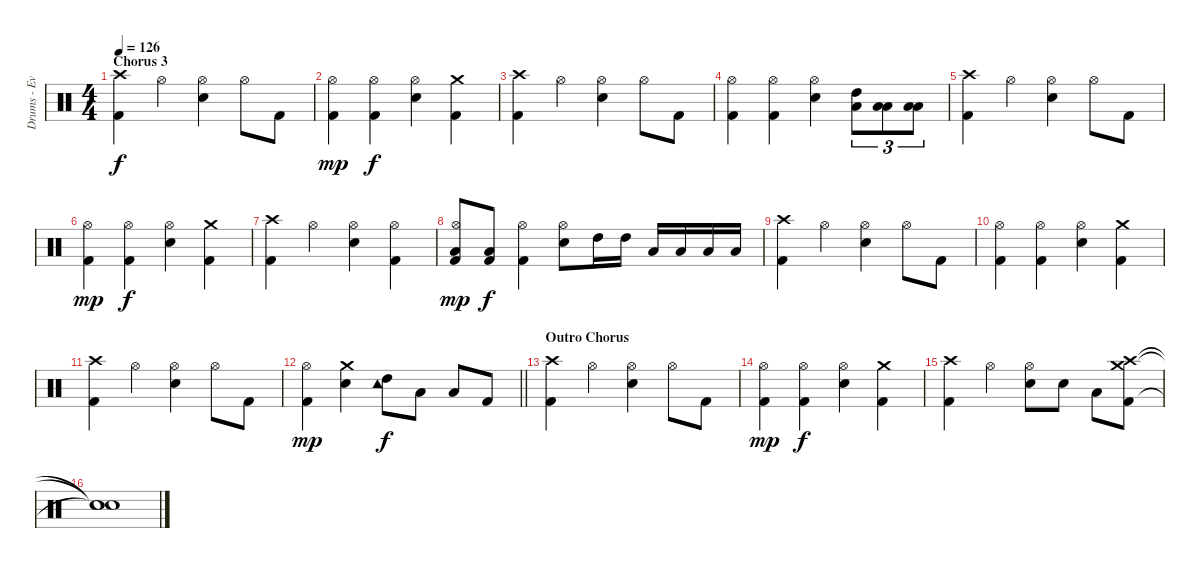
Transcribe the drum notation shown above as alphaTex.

\track ("Drums - Evans" "Drums - Ev") {instrument percussion}
\staff {score}
\articulation defaults
\ts (4 4)
\section ("" "Chorus 3")
\tempo 126
\clef neutral
\ks c
("Crash high (hit)" "Kick (hit) 2").4{dy f} "Hi-Hat (open)".4 ("Hi-Hat (open)" "Electric Snare (hit)").4 "Hi-Hat (open)".8 "Kick (hit) 2".8 |
("Hi-Hat (open)" "Kick (hit) 2").4{dy mp} ("Hi-Hat (open)" "Kick (hit) 2").4{dy f} ("Hi-Hat (open)" "Electric Snare (hit)").4 ("Crash medium (hit)" "Kick (hit) 2").4 |
("Crash high (hit)" "Kick (hit) 2").4 "Hi-Hat (open)".4 ("Hi-Hat (open)" "Electric Snare (hit)").4 "Hi-Hat (open)".8 "Kick (hit) 2".8 |
("Hi-Hat (open)" "Kick (hit) 2").4 ("Hi-Hat (open)" "Kick (hit) 2").4 ("Hi-Hat (open)" "Electric Snare (hit)").4 ("High Tom (hit)" "Low Tom (hit)").8{tu (3 2)} ("Low Floor Tom (hit)" "Low Tom (hit)").8{tu (3 2)} ("Low Floor Tom (hit)" "Low Tom (hit)").8{tu (3 2)} |
("Crash high (hit)" "Kick (hit) 2").4 "Hi-Hat (open)".4 ("Hi-Hat (open)" "Electric Snare (hit)").4 "Hi-Hat (open)".8 "Kick (hit) 2".8 |
("Hi-Hat (open)" "Kick (hit) 2").4{dy mp} ("Hi-Hat (open)" "Kick (hit) 2").4{dy f} ("Hi-Hat (open)" "Electric Snare (hit)").4 ("Crash medium (hit)" "Kick (hit) 2").4 |
("Crash high (hit)" "Kick (hit) 2").4 "Hi-Hat (open)".4 ("Hi-Hat (open)" "Electric Snare (hit)").4 ("Hi-Hat (open)" "Kick (hit) 2").4 |
("Hi-Hat (open)" "Low Tom (hit)" "Kick (hit) 2").8{dy mp} ("Low Floor Tom (hit)" "Kick (hit) 2").8{dy f} ("Hi-Hat (open)" "Kick (hit) 2").4 ("Hi-Hat (open)" "Electric Snare (hit)").8 "High Tom (hit)".16 "High Tom (hit)".16 "Low Tom (hit)".16 "Low Tom (hit)".16 "Low Floor Tom (hit)".16 "Low Floor Tom (hit)".16 |
("Crash high (hit)" "Kick (hit) 2").4 "Hi-Hat (open)".4 ("Hi-Hat (open)" "Electric Snare (hit)").4 "Hi-Hat (open)".8 "Kick (hit) 2".8 |
("Hi-Hat (open)" "Kick (hit) 2").4 ("Hi-Hat (open)" "Kick (hit) 2").4 ("Hi-Hat (open)" "Electric Snare (hit)").4 ("Crash medium (hit)" "Kick (hit) 2").4 |
("Crash high (hit)" "Kick (hit) 2").4 "Hi-Hat (open)".4 ("Hi-Hat (open)" "Electric Snare (hit)").4 "Hi-Hat (open)".8 "Kick (hit) 2".8 |
\barLineRight lightlight
("Hi-Hat (open)" "Kick (hit) 2").4{dy mp} ("Crash medium (hit)" "Electric Snare (hit)").4 ("Tambourine (hit)" "High Tom (hit)").8{dy f} "Low Tom (hit)".8 "Low Floor Tom (hit)".8 "Kick (hit) 2".8 |
\section ("" "Outro Chorus")
("Crash high (hit)" "Kick (hit) 2").4 "Hi-Hat (open)".4 ("Hi-Hat (open)" "Electric Snare (hit)").4 "Hi-Hat (open)".8 "Kick (hit) 2".8 |
("Hi-Hat (open)" "Kick (hit) 2").4{dy mp} ("Hi-Hat (open)" "Kick (hit) 2").4{dy f} ("Hi-Hat (open)" "Electric Snare (hit)").4 ("Crash medium (hit)" "Kick (hit) 2").4 |
("Crash high (hit)" "Kick (hit) 2").4 "Hi-Hat (open)".4 ("Hi-Hat (open)" "Electric Snare (hit)").8 "Electric Snare (hit)".8 "Low Tom (hit)".8 ("Crash high (hit)" "Crash medium (hit)" "Kick (hit) 2").8 |
("Snare (hit)"{t} "Snare (hit)"{t} "Snare (hit)"{t}).1
